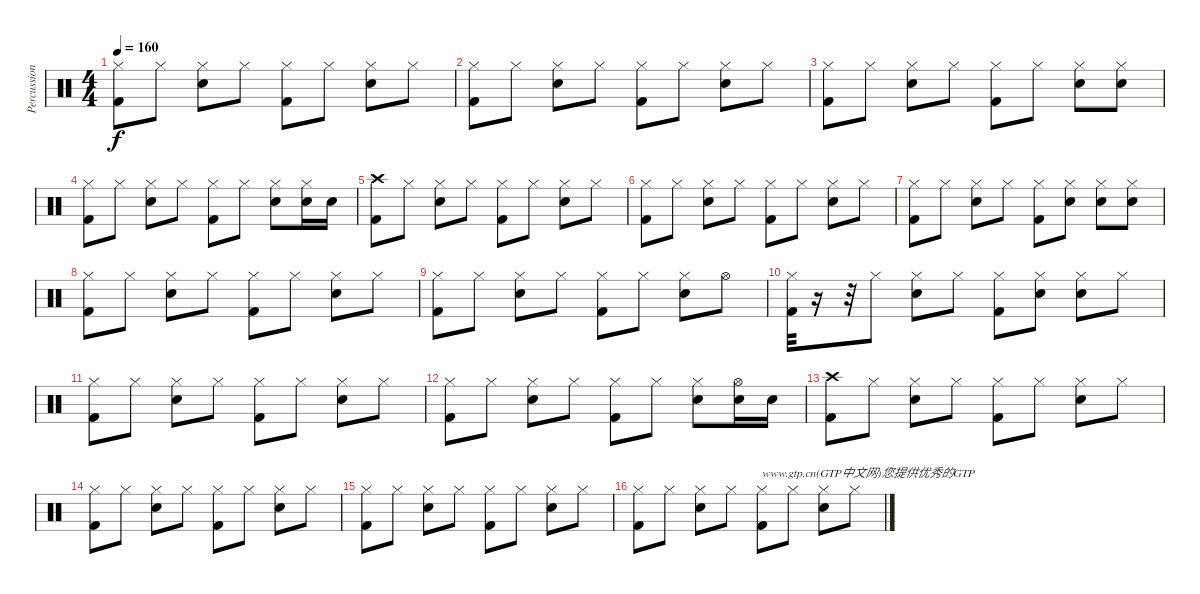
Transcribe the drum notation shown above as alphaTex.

\track ("Percussions" "Percussion") {instrument percussion}
\staff {score}
\articulation defaults
\ts (4 4)
\tempo 160
\clef neutral
\ks c
("Hi-Hat (closed)" "Kick (hit) 2").8{dy f} "Hi-Hat (closed)".8 ("Hi-Hat (closed)" "Snare (hit) 2").8 "Hi-Hat (closed)".8 ("Hi-Hat (closed)" "Kick (hit) 2").8 "Hi-Hat (closed)".8 ("Hi-Hat (closed)" "Snare (hit) 2").8 "Hi-Hat (closed)".8 |
("Hi-Hat (closed)" "Kick (hit) 2").8 "Hi-Hat (closed)".8 ("Hi-Hat (closed)" "Snare (hit) 2").8 "Hi-Hat (closed)".8 ("Hi-Hat (closed)" "Kick (hit) 2").8 "Hi-Hat (closed)".8 ("Hi-Hat (closed)" "Snare (hit) 2").8 "Hi-Hat (closed)".8 |
("Hi-Hat (closed)" "Kick (hit) 2").8 "Hi-Hat (closed)".8 ("Hi-Hat (closed)" "Snare (hit) 2").8 "Hi-Hat (closed)".8 ("Hi-Hat (closed)" "Kick (hit) 2").8 "Hi-Hat (closed)".8 ("Hi-Hat (closed)" "Snare (hit) 2").8 ("Hi-Hat (closed)" "Snare (hit) 2").8 |
("Hi-Hat (closed)" "Kick (hit) 2").8 "Hi-Hat (closed)".8 ("Hi-Hat (closed)" "Snare (hit) 2").8 "Hi-Hat (closed)".8 ("Hi-Hat (closed)" "Kick (hit) 2").8 "Hi-Hat (closed)".8 ("Snare (hit) 2" "Hi-Hat (closed)").8 ("Hi-Hat (closed)" "Snare (hit) 2").16 "Snare (hit) 2".16 |
("Crash high (hit)" "Kick (hit) 2").8 "Hi-Hat (closed)".8 ("Hi-Hat (closed)" "Snare (hit) 2").8 "Hi-Hat (closed)".8 ("Hi-Hat (closed)" "Kick (hit) 2").8 "Hi-Hat (closed)".8 ("Hi-Hat (closed)" "Snare (hit) 2").8 "Hi-Hat (closed)".8 |
("Hi-Hat (closed)" "Kick (hit) 2").8 "Hi-Hat (closed)".8 ("Hi-Hat (closed)" "Snare (hit) 2").8 "Hi-Hat (closed)".8 ("Hi-Hat (closed)" "Kick (hit) 2").8 "Hi-Hat (closed)".8 ("Hi-Hat (closed)" "Snare (hit) 2").8 "Hi-Hat (closed)".8 |
("Hi-Hat (closed)" "Kick (hit) 2").8 "Hi-Hat (closed)".8 ("Hi-Hat (closed)" "Snare (hit) 2").8 "Hi-Hat (closed)".8 ("Hi-Hat (closed)" "Kick (hit) 2").8 ("Hi-Hat (closed)" "Snare (hit) 2").8 ("Hi-Hat (closed)" "Snare (hit) 2").8 ("Hi-Hat (closed)" "Snare (hit) 2").8 |
("Hi-Hat (closed)" "Kick (hit) 2").8 "Hi-Hat (closed)".8 ("Hi-Hat (closed)" "Snare (hit) 2").8 "Hi-Hat (closed)".8 ("Hi-Hat (closed)" "Kick (hit) 2").8 "Hi-Hat (closed)".8 ("Hi-Hat (closed)" "Snare (hit) 2").8 "Hi-Hat (closed)".8 |
("Hi-Hat (closed)" "Kick (hit) 2").8 "Hi-Hat (closed)".8 ("Hi-Hat (closed)" "Snare (hit) 2").8 "Hi-Hat (closed)".8 ("Hi-Hat (closed)" "Kick (hit) 2").8 "Hi-Hat (closed)".8 ("Hi-Hat (closed)" "Snare (hit) 2").8 "Hi-Hat (open)".8 |
("Hi-Hat (closed)" "Kick (hit) 2").32 r.16 r.32 "Hi-Hat (closed)".8 ("Hi-Hat (closed)" "Snare (hit) 2").8 "Hi-Hat (closed)".8 ("Hi-Hat (closed)" "Kick (hit) 2").8 ("Hi-Hat (closed)" "Snare (hit) 2").8 ("Hi-Hat (closed)" "Snare (hit) 2").8 "Hi-Hat (closed)".8 |
("Hi-Hat (closed)" "Kick (hit) 2").8 "Hi-Hat (closed)".8 ("Hi-Hat (closed)" "Snare (hit) 2").8 "Hi-Hat (closed)".8 ("Hi-Hat (closed)" "Kick (hit) 2").8 "Hi-Hat (closed)".8 ("Hi-Hat (closed)" "Snare (hit) 2").8 "Hi-Hat (closed)".8 |
("Hi-Hat (closed)" "Kick (hit) 2").8 "Hi-Hat (closed)".8 ("Hi-Hat (closed)" "Snare (hit) 2").8 "Hi-Hat (closed)".8 ("Kick (hit) 2" "Hi-Hat (closed)").8 "Hi-Hat (closed)".8 ("Hi-Hat (closed)" "Snare (hit) 2").8 ("Hi-Hat (open)" "Snare (hit) 2").16 "Snare (hit) 2".16 |
("Crash high (hit)" "Kick (hit) 2").8 "Hi-Hat (closed)".8 ("Hi-Hat (closed)" "Snare (hit) 2").8 "Hi-Hat (closed)".8 ("Kick (hit) 2" "Hi-Hat (closed)").8 "Hi-Hat (closed)".8 ("Hi-Hat (closed)" "Snare (hit) 2").8 "Hi-Hat (closed)".8 |
("Hi-Hat (closed)" "Kick (hit) 2").8 "Hi-Hat (closed)".8 ("Hi-Hat (closed)" "Snare (hit) 2").8 "Hi-Hat (closed)".8 ("Hi-Hat (closed)" "Kick (hit) 2").8 "Hi-Hat (closed)".8 ("Hi-Hat (closed)" "Snare (hit) 2").8 "Hi-Hat (closed)".8 |
("Hi-Hat (closed)" "Kick (hit) 2").8 "Hi-Hat (closed)".8 ("Hi-Hat (closed)" "Snare (hit) 2").8 "Hi-Hat (closed)".8 ("Hi-Hat (closed)" "Kick (hit) 2").8 "Hi-Hat (closed)".8 ("Hi-Hat (closed)" "Snare (hit) 2").8 "Hi-Hat (closed)".8 |
("Hi-Hat (closed)" "Kick (hit) 2").8 "Hi-Hat (closed)".8 ("Hi-Hat (closed)" "Snare (hit) 2").8 "Hi-Hat (closed)".8 ("Hi-Hat (closed)" "Kick (hit) 2").8{txt "www.gtp.cn(GTP中文网)您提供优秀的GTP"} "Hi-Hat (closed)".8 ("Hi-Hat (closed)" "Snare (hit) 2").8 "Hi-Hat (closed)".8
